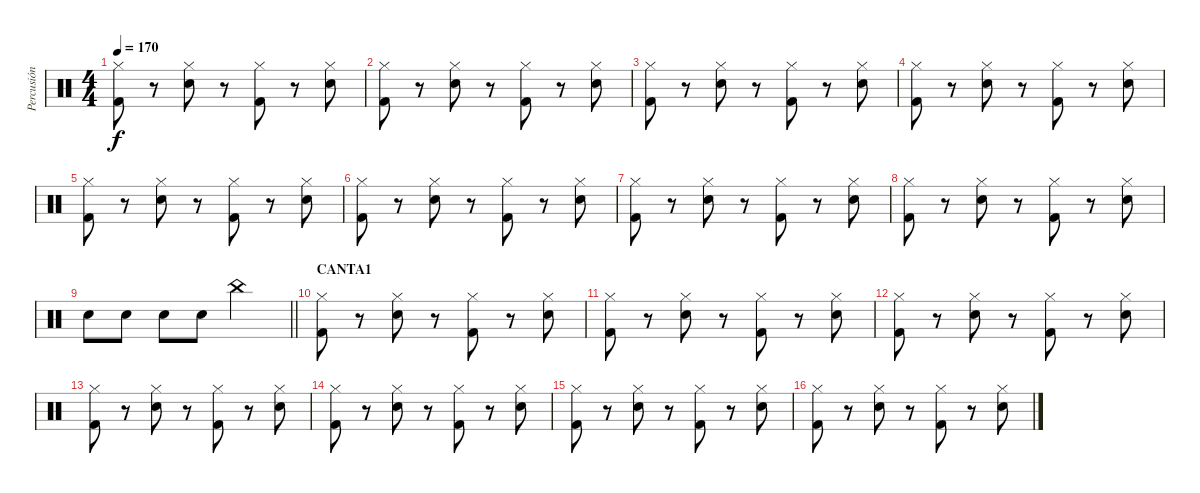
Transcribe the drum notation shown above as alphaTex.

\track ("Percusión" "Percusión") {instrument percussion}
\staff {score}
\articulation defaults
\ts (4 4)
\tempo 170
\clef neutral
\ks c
("Hi-Hat (closed)" "Kick (hit) 2").8{dy f} r.8 ("Hi-Hat (closed)" "Electric Snare (hit)").8 r.8 ("Hi-Hat (closed)" "Kick (hit) 2").8 r.8 ("Hi-Hat (closed)" "Electric Snare (hit)").8 |
("Hi-Hat (closed)" "Kick (hit) 2").8 r.8 ("Hi-Hat (closed)" "Electric Snare (hit)").8 r.8 ("Hi-Hat (closed)" "Kick (hit) 2").8 r.8 ("Hi-Hat (closed)" "Electric Snare (hit)").8 |
("Hi-Hat (closed)" "Kick (hit) 2").8 r.8 ("Hi-Hat (closed)" "Electric Snare (hit)").8 r.8 ("Hi-Hat (closed)" "Kick (hit) 2").8 r.8 ("Hi-Hat (closed)" "Electric Snare (hit)").8 |
("Hi-Hat (closed)" "Kick (hit) 2").8 r.8 ("Hi-Hat (closed)" "Electric Snare (hit)").8 r.8 ("Hi-Hat (closed)" "Kick (hit) 2").8 r.8 ("Hi-Hat (closed)" "Electric Snare (hit)").8 |
("Hi-Hat (closed)" "Kick (hit) 2").8 r.8 ("Hi-Hat (closed)" "Electric Snare (hit)").8 r.8 ("Hi-Hat (closed)" "Kick (hit) 2").8 r.8 ("Hi-Hat (closed)" "Electric Snare (hit)").8 |
("Hi-Hat (closed)" "Kick (hit) 2").8 r.8 ("Hi-Hat (closed)" "Electric Snare (hit)").8 r.8 ("Hi-Hat (closed)" "Kick (hit) 2").8 r.8 ("Hi-Hat (closed)" "Electric Snare (hit)").8 |
("Hi-Hat (closed)" "Kick (hit) 2").8 r.8 ("Hi-Hat (closed)" "Electric Snare (hit)").8 r.8 ("Hi-Hat (closed)" "Kick (hit) 2").8 r.8 ("Hi-Hat (closed)" "Electric Snare (hit)").8 |
("Hi-Hat (closed)" "Kick (hit) 2").8 r.8 ("Hi-Hat (closed)" "Electric Snare (hit)").8 r.8 ("Hi-Hat (closed)" "Kick (hit) 2").8 r.8 ("Hi-Hat (closed)" "Electric Snare (hit)").8 |
\barLineRight lightlight "Electric Snare (hit)".8 "Electric Snare (hit)".8 "Electric Snare (hit)".8 "Electric Snare (hit)".8 "China (hit)".2
|
\section ("" "CANTA1")
("Hi-Hat (closed)" "Kick (hit) 2").8 r.8 ("Hi-Hat (closed)" "Electric Snare (hit)").8 r.8 ("Hi-Hat (closed)" "Kick (hit) 2").8 r.8 ("Hi-Hat (closed)" "Electric Snare (hit)").8 |
("Hi-Hat (closed)" "Kick (hit) 2").8 r.8 ("Hi-Hat (closed)" "Electric Snare (hit)").8 r.8 ("Hi-Hat (closed)" "Kick (hit) 2").8 r.8 ("Hi-Hat (closed)" "Electric Snare (hit)").8 |
("Hi-Hat (closed)" "Kick (hit) 2").8 r.8 ("Hi-Hat (closed)" "Electric Snare (hit)").8 r.8 ("Hi-Hat (closed)" "Kick (hit) 2").8 r.8 ("Hi-Hat (closed)" "Electric Snare (hit)").8 |
("Hi-Hat (closed)" "Kick (hit) 2").8 r.8 ("Hi-Hat (closed)" "Electric Snare (hit)").8 r.8 ("Hi-Hat (closed)" "Kick (hit) 2").8 r.8 ("Hi-Hat (closed)" "Electric Snare (hit)").8 |
("Hi-Hat (closed)" "Kick (hit) 2").8 r.8 ("Hi-Hat (closed)" "Electric Snare (hit)").8 r.8 ("Hi-Hat (closed)" "Kick (hit) 2").8 r.8 ("Hi-Hat (closed)" "Electric Snare (hit)").8 |
("Hi-Hat (closed)" "Kick (hit) 2").8 r.8 ("Hi-Hat (closed)" "Electric Snare (hit)").8 r.8 ("Hi-Hat (closed)" "Kick (hit) 2").8 r.8 ("Hi-Hat (closed)" "Electric Snare (hit)").8 |
("Hi-Hat (closed)" "Kick (hit) 2").8 r.8 ("Hi-Hat (closed)" "Electric Snare (hit)").8 r.8 ("Hi-Hat (closed)" "Kick (hit) 2").8 r.8 ("Hi-Hat (closed)" "Electric Snare (hit)").8
